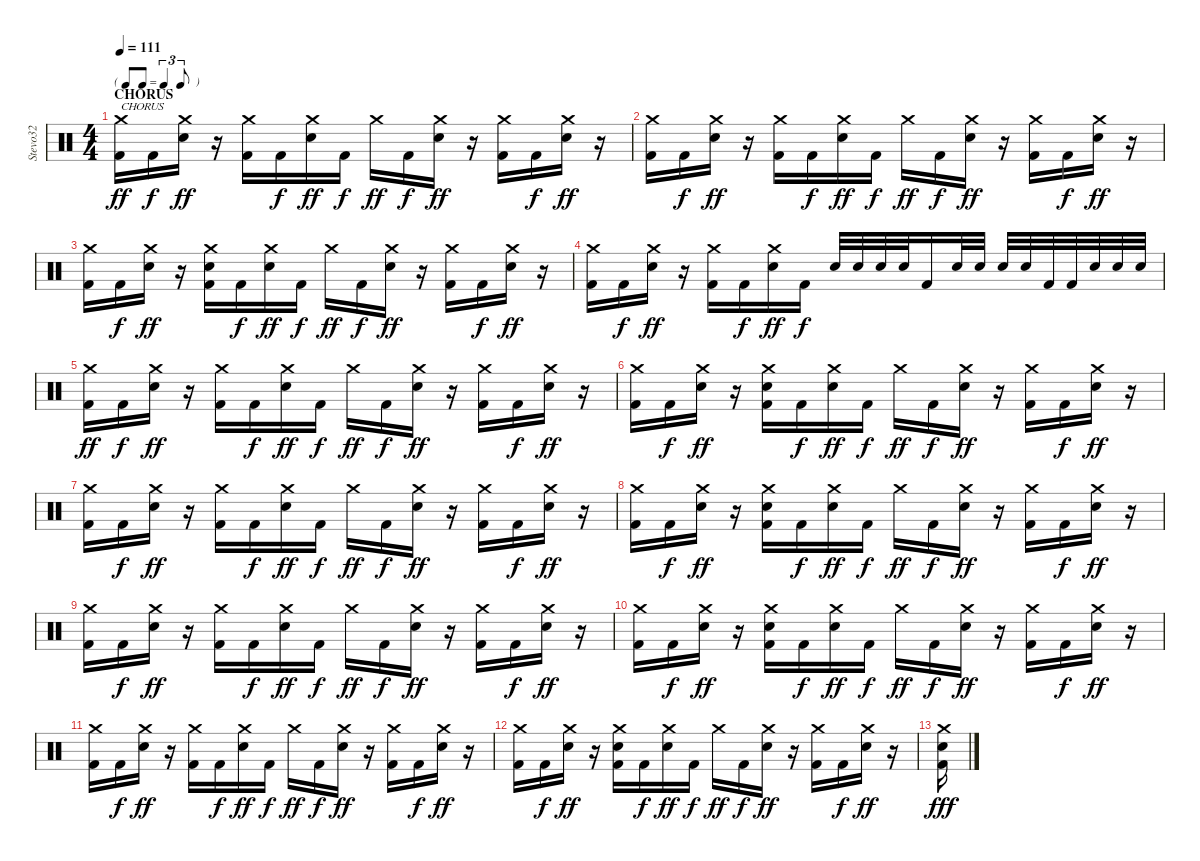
\track ("Stevo32" "Stevo32") {instrument percussion}
\staff {score}
\articulation defaults
\ts (4 4)
\tf triplet8th
\section ("" "CHORUS")
\tempo 111
\clef neutral
\ks c
("Crash medium (hit)" "Kick (hit) 2").16{txt "CHORUS" dy ff} "Kick (hit) 2".16{dy f} ("Crash medium (hit)" "Electric Snare (hit)").16{dy ff} r.16 ("Crash medium (hit)" "Kick (hit) 2").16 "Kick (hit) 2".16{dy f} ("Crash medium (hit)" "Electric Snare (hit)").16{dy ff} "Kick (hit) 2".16{dy f} "Crash medium (hit)".16{dy ff} "Kick (hit) 2".16{dy f} ("Crash medium (hit)" "Electric Snare (hit)").16{dy ff} r.16 ("Crash medium (hit)" "Kick (hit) 2").16 "Kick (hit) 2".16{dy f} ("Crash medium (hit)" "Electric Snare (hit)").16{dy ff} r.16 |
("Crash medium (hit)" "Kick (hit) 2").16 "Kick (hit) 2".16{dy f} ("Crash medium (hit)" "Electric Snare (hit)").16{dy ff} r.16 ("Crash medium (hit)" "Kick (hit) 2").16 "Kick (hit) 2".16{dy f} ("Crash medium (hit)" "Electric Snare (hit)").16{dy ff} "Kick (hit) 2".16{dy f} "Crash medium (hit)".16{dy ff} "Kick (hit) 2".16{dy f} ("Crash medium (hit)" "Electric Snare (hit)").16{dy ff} r.16 ("Crash medium (hit)" "Kick (hit) 2").16 "Kick (hit) 2".16{dy f} ("Crash medium (hit)" "Electric Snare (hit)").16{dy ff} r.16 |
("Crash medium (hit)" "Kick (hit) 2").16 "Kick (hit) 2".16{dy f} ("Crash medium (hit)" "Electric Snare (hit)").16{dy ff} r.16 ("Snare (hit)" "Crash medium (hit)" "Kick (hit) 2").16 "Kick (hit) 2".16{dy f} ("Crash medium (hit)" "Electric Snare (hit)").16{dy ff} "Kick (hit) 2".16{dy f} "Crash medium (hit)".16{dy ff} "Kick (hit) 2".16{dy f} ("Crash medium (hit)" "Electric Snare (hit)").16{dy ff} r.16 ("Crash medium (hit)" "Kick (hit) 2").16 "Kick (hit) 2".16{dy f} ("Crash medium (hit)" "Electric Snare (hit)").16{dy ff} r.16 |
("Crash medium (hit)" "Kick (hit) 2").16 "Kick (hit) 2".16{dy f} ("Crash medium (hit)" "Electric Snare (hit)").16{dy ff} r.16 ("Crash medium (hit)" "Kick (hit) 2").16 "Kick (hit) 2".16{dy f} ("Crash medium (hit)" "Electric Snare (hit)").16{dy ff} "Kick (hit) 2".16{dy f} "Electric Snare (hit)".32 "Electric Snare (hit)".32 "Electric Snare (hit)".32 "Electric Snare (hit)".32 "Kick (hit) 2".16 "Electric Snare (hit)".32 "Electric Snare (hit)".32 "Electric Snare (hit)".32 "Electric Snare (hit)".32 "Kick (hit) 2".32 "Kick (hit) 2".32 "Electric Snare (hit)".32 "Electric Snare (hit)".32 "Electric Snare (hit)".32 |
("Crash medium (hit)" "Kick (hit) 2").16{dy ff} "Kick (hit) 2".16{dy f} ("Crash medium (hit)" "Electric Snare (hit)").16{dy ff} r.16 ("Crash medium (hit)" "Kick (hit) 2").16 "Kick (hit) 2".16{dy f} ("Crash medium (hit)" "Electric Snare (hit)").16{dy ff} "Kick (hit) 2".16{dy f} "Crash medium (hit)".16{dy ff} "Kick (hit) 2".16{dy f} ("Crash medium (hit)" "Electric Snare (hit)").16{dy ff} r.16 ("Crash medium (hit)" "Kick (hit) 2").16 "Kick (hit) 2".16{dy f} ("Crash medium (hit)" "Electric Snare (hit)").16{dy ff} r.16 |
("Crash medium (hit)" "Kick (hit) 2").16 "Kick (hit) 2".16{dy f} ("Crash medium (hit)" "Electric Snare (hit)").16{dy ff} r.16 ("Snare (hit)" "Crash medium (hit)" "Kick (hit) 2").16 "Kick (hit) 2".16{dy f} ("Crash medium (hit)" "Electric Snare (hit)").16{dy ff} "Kick (hit) 2".16{dy f} "Crash medium (hit)".16{dy ff} "Kick (hit) 2".16{dy f} ("Crash medium (hit)" "Electric Snare (hit)").16{dy ff} r.16 ("Crash medium (hit)" "Kick (hit) 2").16 "Kick (hit) 2".16{dy f} ("Crash medium (hit)" "Electric Snare (hit)").16{dy ff} r.16 |
("Crash medium (hit)" "Kick (hit) 2").16 "Kick (hit) 2".16{dy f} ("Crash medium (hit)" "Electric Snare (hit)").16{dy ff} r.16 ("Crash medium (hit)" "Kick (hit) 2").16 "Kick (hit) 2".16{dy f} ("Crash medium (hit)" "Electric Snare (hit)").16{dy ff} "Kick (hit) 2".16{dy f} "Crash medium (hit)".16{dy ff} "Kick (hit) 2".16{dy f} ("Crash medium (hit)" "Electric Snare (hit)").16{dy ff} r.16 ("Crash medium (hit)" "Kick (hit) 2").16 "Kick (hit) 2".16{dy f} ("Crash medium (hit)" "Electric Snare (hit)").16{dy ff} r.16 |
("Crash medium (hit)" "Kick (hit) 2").16 "Kick (hit) 2".16{dy f} ("Crash medium (hit)" "Electric Snare (hit)").16{dy ff} r.16 ("Snare (hit)" "Crash medium (hit)" "Kick (hit) 2").16 "Kick (hit) 2".16{dy f} ("Crash medium (hit)" "Electric Snare (hit)").16{dy ff} "Kick (hit) 2".16{dy f} "Crash medium (hit)".16{dy ff} "Kick (hit) 2".16{dy f} ("Crash medium (hit)" "Electric Snare (hit)").16{dy ff} r.16 ("Crash medium (hit)" "Kick (hit) 2").16 "Kick (hit) 2".16{dy f} ("Crash medium (hit)" "Electric Snare (hit)").16{dy ff} r.16 |
("Crash medium (hit)" "Kick (hit) 2").16 "Kick (hit) 2".16{dy f} ("Crash medium (hit)" "Electric Snare (hit)").16{dy ff} r.16 ("Crash medium (hit)" "Kick (hit) 2").16 "Kick (hit) 2".16{dy f} ("Crash medium (hit)" "Electric Snare (hit)").16{dy ff} "Kick (hit) 2".16{dy f} "Crash medium (hit)".16{dy ff} "Kick (hit) 2".16{dy f} ("Crash medium (hit)" "Electric Snare (hit)").16{dy ff} r.16 ("Crash medium (hit)" "Kick (hit) 2").16 "Kick (hit) 2".16{dy f} ("Crash medium (hit)" "Electric Snare (hit)").16{dy ff} r.16 |
("Crash medium (hit)" "Kick (hit) 2").16 "Kick (hit) 2".16{dy f} ("Crash medium (hit)" "Electric Snare (hit)").16{dy ff} r.16 ("Snare (hit)" "Crash medium (hit)" "Kick (hit) 2").16 "Kick (hit) 2".16{dy f} ("Crash medium (hit)" "Electric Snare (hit)").16{dy ff} "Kick (hit) 2".16{dy f} "Crash medium (hit)".16{dy ff} "Kick (hit) 2".16{dy f} ("Crash medium (hit)" "Electric Snare (hit)").16{dy ff} r.16 ("Crash medium (hit)" "Kick (hit) 2").16 "Kick (hit) 2".16{dy f} ("Crash medium (hit)" "Electric Snare (hit)").16{dy ff} r.16 |
("Crash medium (hit)" "Kick (hit) 2").16 "Kick (hit) 2".16{dy f} ("Crash medium (hit)" "Electric Snare (hit)").16{dy ff} r.16 ("Crash medium (hit)" "Kick (hit) 2").16 "Kick (hit) 2".16{dy f} ("Crash medium (hit)" "Electric Snare (hit)").16{dy ff} "Kick (hit) 2".16{dy f} "Crash medium (hit)".16{dy ff} "Kick (hit) 2".16{dy f} ("Crash medium (hit)" "Electric Snare (hit)").16{dy ff} r.16 ("Crash medium (hit)" "Kick (hit) 2").16 "Kick (hit) 2".16{dy f} ("Crash medium (hit)" "Electric Snare (hit)").16{dy ff} r.16 |
("Crash medium (hit)" "Kick (hit) 2").16 "Kick (hit) 2".16{dy f} ("Crash medium (hit)" "Electric Snare (hit)").16{dy ff} r.16 ("Snare (hit)" "Crash medium (hit)" "Kick (hit) 2").16 "Kick (hit) 2".16{dy f} ("Crash medium (hit)" "Electric Snare (hit)").16{dy ff} "Kick (hit) 2".16{dy f} "Crash medium (hit)".16{dy ff} "Kick (hit) 2".16{dy f} ("Crash medium (hit)" "Electric Snare (hit)").16{dy ff} r.16 ("Crash medium (hit)" "Kick (hit) 2").16 "Kick (hit) 2".16{dy f} ("Crash medium (hit)" "Electric Snare (hit)").16{dy ff} r.16 |
("Crash medium (hit)" "Kick (hit) 2" "Electric Snare (hit)").16{dy fff}
